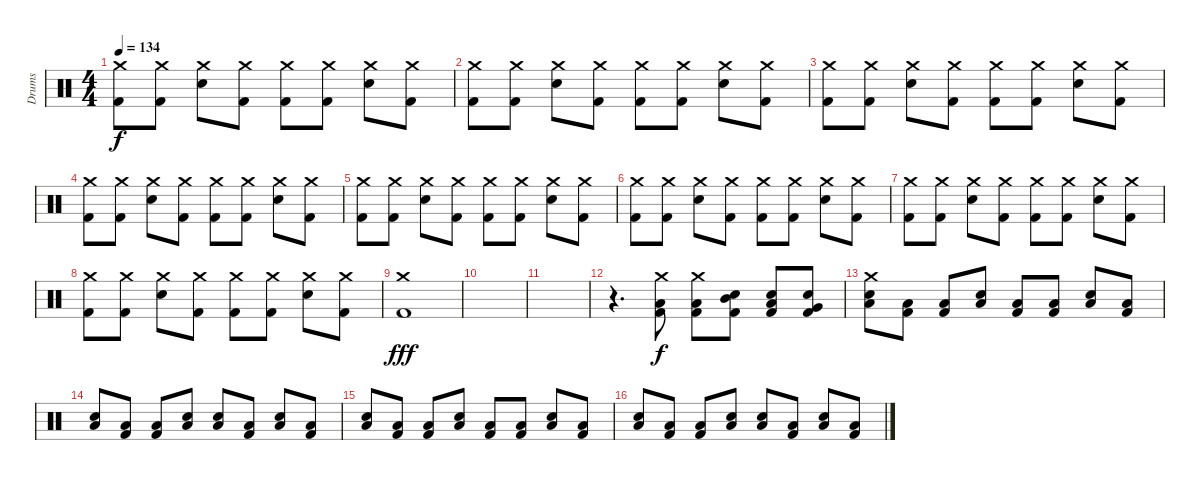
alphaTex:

\track ("Drums" "Drums") {instrument percussion}
\staff {score}
\articulation defaults
\ts (4 4)
\tempo 134
\clef neutral
\ks c
("Crash medium (hit)" "Kick (hit) 2").8{dy f} ("Crash medium (hit)" "Kick (hit) 2").8 ("Crash medium (hit)" "Snare (hit) 2").8 ("Crash medium (hit)" "Kick (hit) 2").8 ("Crash medium (hit)" "Kick (hit) 2").8 ("Crash medium (hit)" "Kick (hit) 2").8 ("Crash medium (hit)" "Snare (hit) 2").8 ("Crash medium (hit)" "Kick (hit) 2").8 |
("Crash medium (hit)" "Kick (hit) 2").8 ("Crash medium (hit)" "Kick (hit) 2").8 ("Crash medium (hit)" "Snare (hit) 2").8 ("Crash medium (hit)" "Kick (hit) 2").8 ("Crash medium (hit)" "Kick (hit) 2").8 ("Crash medium (hit)" "Kick (hit) 2").8 ("Crash medium (hit)" "Snare (hit) 2").8 ("Crash medium (hit)" "Kick (hit) 2").8 |
("Crash medium (hit)" "Kick (hit) 2").8 ("Crash medium (hit)" "Kick (hit) 2").8 ("Crash medium (hit)" "Snare (hit) 2").8 ("Crash medium (hit)" "Kick (hit) 2").8 ("Crash medium (hit)" "Kick (hit) 2").8 ("Crash medium (hit)" "Kick (hit) 2").8 ("Crash medium (hit)" "Snare (hit) 2").8 ("Crash medium (hit)" "Kick (hit) 2").8 |
("Crash medium (hit)" "Kick (hit) 2").8 ("Crash medium (hit)" "Kick (hit) 2").8 ("Crash medium (hit)" "Snare (hit) 2").8 ("Crash medium (hit)" "Kick (hit) 2").8 ("Crash medium (hit)" "Kick (hit) 2").8 ("Crash medium (hit)" "Kick (hit) 2").8 ("Crash medium (hit)" "Snare (hit) 2").8 ("Crash medium (hit)" "Kick (hit) 2").8 |
("Crash medium (hit)" "Kick (hit) 2").8 ("Crash medium (hit)" "Kick (hit) 2").8 ("Crash medium (hit)" "Snare (hit) 2").8 ("Crash medium (hit)" "Kick (hit) 2").8 ("Crash medium (hit)" "Kick (hit) 2").8 ("Crash medium (hit)" "Kick (hit) 2").8 ("Crash medium (hit)" "Snare (hit) 2").8 ("Crash medium (hit)" "Kick (hit) 2").8 |
("Crash medium (hit)" "Kick (hit) 2").8 ("Crash medium (hit)" "Kick (hit) 2").8 ("Crash medium (hit)" "Snare (hit) 2").8 ("Crash medium (hit)" "Kick (hit) 2").8 ("Crash medium (hit)" "Kick (hit) 2").8 ("Crash medium (hit)" "Kick (hit) 2").8 ("Crash medium (hit)" "Snare (hit) 2").8 ("Crash medium (hit)" "Kick (hit) 2").8 |
("Crash medium (hit)" "Kick (hit) 2").8 ("Crash medium (hit)" "Kick (hit) 2").8 ("Crash medium (hit)" "Snare (hit) 2").8 ("Crash medium (hit)" "Kick (hit) 2").8 ("Crash medium (hit)" "Kick (hit) 2").8 ("Crash medium (hit)" "Kick (hit) 2").8 ("Crash medium (hit)" "Snare (hit) 2").8 ("Crash medium (hit)" "Kick (hit) 2").8 |
("Crash medium (hit)" "Kick (hit) 2").8 ("Crash medium (hit)" "Kick (hit) 2").8 ("Crash medium (hit)" "Snare (hit) 2").8 ("Crash medium (hit)" "Kick (hit) 2").8 ("Crash medium (hit)" "Kick (hit) 2").8 ("Crash medium (hit)" "Kick (hit) 2").8 ("Crash medium (hit)" "Snare (hit) 2").8 ("Crash medium (hit)" "Kick (hit) 2").8 |
("Crash medium (hit)" "Kick (hit) 2").1{dy fff} |
|
|
r.4{d} ("Crash medium (hit)" "Low Tom (hit)" "Kick (hit) 2").8{dy f volume 10} ("Crash medium (hit)" "Low Tom (hit)" "Kick (hit) 2").8 ("Snare (hit) 2" "Mid Tom (hit)" "Kick (hit) 2").8 ("Snare (hit) 2" "Low Tom (hit)" "Kick (hit) 2").8 ("Snare (hit) 2" "Very Low Tom (hit)" "Kick (hit) 2").8 |
("Crash medium (hit)" "Low Tom (hit)" "Snare (hit) 2").8 ("Low Tom (hit)" "Kick (hit) 2").8 ("Low Tom (hit)" "Kick (hit) 2").8 ("Low Tom (hit)" "Snare (hit) 2").8 ("Low Tom (hit)" "Kick (hit) 2").8 ("Low Tom (hit)" "Kick (hit) 2").8 ("Low Tom (hit)" "Snare (hit) 2").8 ("Low Tom (hit)" "Kick (hit) 2").8 |
("Low Tom (hit)" "Snare (hit) 2").8 ("Low Tom (hit)" "Kick (hit) 2").8 ("Low Tom (hit)" "Kick (hit) 2").8 ("Low Tom (hit)" "Snare (hit) 2").8 ("Low Tom (hit)" "Snare (hit) 2").8 ("Low Tom (hit)" "Kick (hit) 2").8 ("Low Tom (hit)" "Snare (hit) 2").8 ("Low Tom (hit)" "Kick (hit) 2").8 |
("Low Tom (hit)" "Snare (hit) 2").8 ("Low Tom (hit)" "Kick (hit) 2").8 ("Low Tom (hit)" "Kick (hit) 2").8 ("Low Tom (hit)" "Snare (hit) 2").8 ("Low Tom (hit)" "Kick (hit) 2").8 ("Low Tom (hit)" "Kick (hit) 2").8 ("Low Tom (hit)" "Snare (hit) 2").8 ("Low Tom (hit)" "Kick (hit) 2").8 |
("Low Tom (hit)" "Snare (hit) 2").8 ("Low Tom (hit)" "Kick (hit) 2").8 ("Low Tom (hit)" "Kick (hit) 2").8 ("Low Tom (hit)" "Snare (hit) 2").8 ("Low Tom (hit)" "Snare (hit) 2").8 ("Low Tom (hit)" "Kick (hit) 2").8 ("Low Tom (hit)" "Snare (hit) 2").8 ("Low Tom (hit)" "Kick (hit) 2").8
